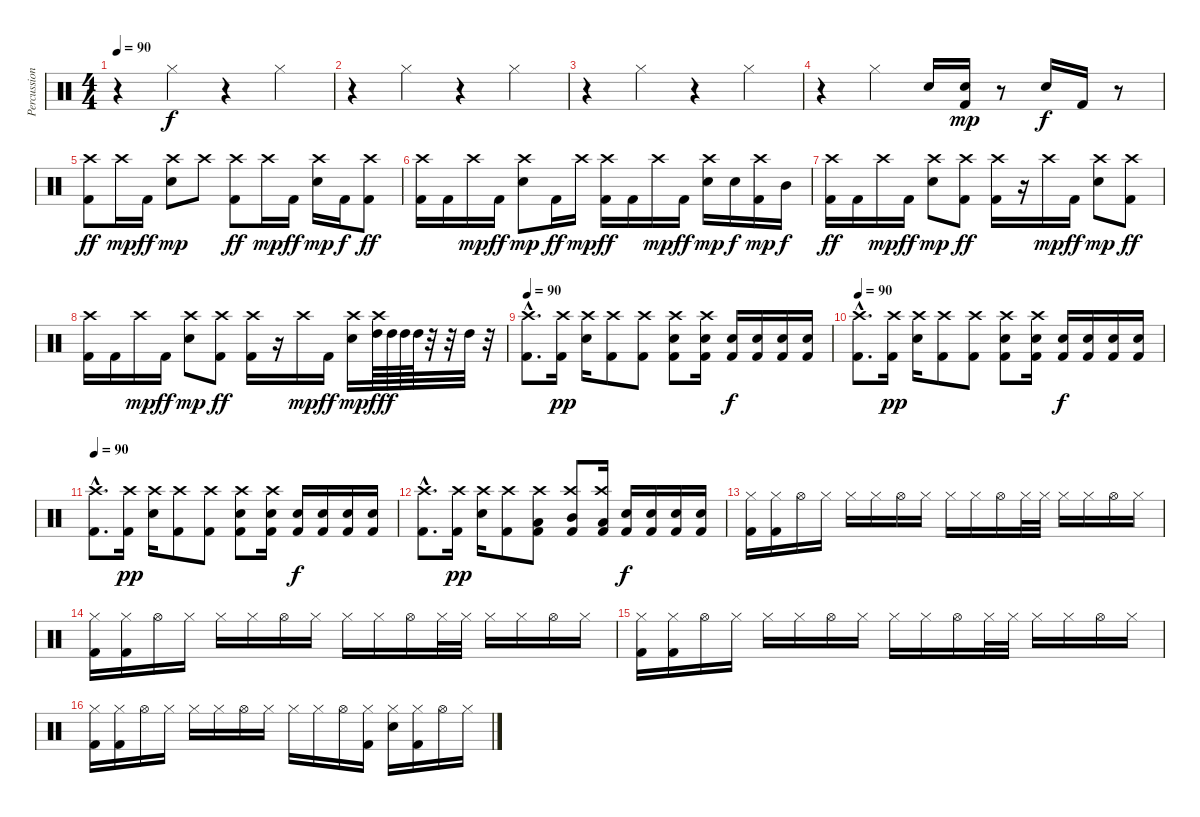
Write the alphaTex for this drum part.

\track ("Percussion" "Percussion") {instrument percussion}
\staff {score}
\articulation defaults
\ts (4 4)
\tempo 90
\clef neutral
\ks c
r.4{dy f} "Hi-Hat (closed)".4 r.4 "Hi-Hat (closed)".4 |
r.4 "Hi-Hat (closed)".4 r.4 "Hi-Hat (closed)".4 |
r.4 "Hi-Hat (closed)".4 r.4 "Hi-Hat (closed)".4 |
r.4 "Hi-Hat (closed)".4 "Electric Snare (hit)".16 ("Snare (hit) 2" "Kick (hit) 2").16{dy mp} r.8 "Electric Snare (hit)".16{dy f} "Kick (hit) 2".16 r.8 |
("Crash high (hit)" "Kick (hit) 2").8{dy ff} "Crash high (hit)".16{dy mp} "Kick (hit) 2".16{dy ff} ("Crash high (hit)" "Electric Snare (hit)").8{dy mp} "Crash high (hit)".8 ("Crash high (hit)" "Kick (hit) 2").8{dy ff} "Crash high (hit)".16{dy mp} "Kick (hit) 2".16{dy ff} ("Crash high (hit)" "Electric Snare (hit)").16{dy mp} "Kick (hit) 2".16{dy f} ("Crash high (hit)" "Kick (hit) 2").8{dy ff} |
("Crash high (hit)" "Kick (hit) 2").16 "Kick (hit) 2".16 "Crash high (hit)".16{dy mp} "Kick (hit) 2".16{dy ff} ("Crash high (hit)" "Electric Snare (hit)").8{dy mp} "Kick (hit) 2".16{dy ff} "Crash high (hit)".16{dy mp} ("Crash high (hit)" "Kick (hit) 2").16{dy ff} "Kick (hit) 2".16 "Crash high (hit)".16{dy mp} "Kick (hit) 2".16{dy ff} ("Crash high (hit)" "Electric Snare (hit)").16{dy mp} "Snare (hit) 2".16{dy f} ("Crash high (hit)" "Kick (hit) 2").16{dy mp} "Mid Tom (hit)".16{dy f} |
("Crash high (hit)" "Kick (hit) 2").16{dy ff} "Kick (hit) 2".16 "Crash high (hit)".16{dy mp} "Kick (hit) 2".16{dy ff} ("Crash high (hit)" "Electric Snare (hit)").8{dy mp} ("Crash high (hit)" "Kick (hit) 2").8{dy ff} ("Crash high (hit)" "Kick (hit) 2").16 r.16 "Crash high (hit)".16{dy mp} "Kick (hit) 2".16{dy ff} ("Crash high (hit)" "Electric Snare (hit)").8{dy mp} ("Crash high (hit)" "Kick (hit) 2").8{dy ff} |
("Crash high (hit)" "Kick (hit) 2").16 "Kick (hit) 2".16 "Crash high (hit)".16{dy mp} "Kick (hit) 2".16{dy ff} ("Crash high (hit)" "Electric Snare (hit)").8{dy mp} ("Crash high (hit)" "Kick (hit) 2").8{dy ff} ("Crash high (hit)" "Kick (hit) 2").16 r.16 "Crash high (hit)".16{dy mp} "Kick (hit) 2".16{dy ff} ("Crash high (hit)" "Electric Snare (hit)").16{dy mp} ("Crash high (hit)" "High Tom (hit)").64{dy ff} "High Tom (hit)".64{dy f} "High Tom (hit)".64 "High Tom (hit)".64 r.32 r.32 "High Tom (hit)".32 r.32 |
\tempo 90
("Crash high (hit)"{hac} "Kick (hit) 2"{hac}).8{d} ("Crash high (hit)" "Kick (hit) 2").16{dy pp} ("Crash high (hit)" "Electric Snare (hit)").16 ("Crash high (hit)" "Kick (hit) 2").8 ("Crash high (hit)" "Kick (hit) 2").8 ("Crash high (hit)" "Snare (hit) 2" "Kick (hit) 2").8 ("Crash high (hit)" "Electric Snare (hit)" "Kick (hit) 2").16 ("Electric Snare (hit)" "Kick (hit) 2").16{dy f} ("Electric Snare (hit)" "Kick (hit) 2").16 ("Electric Snare (hit)" "Kick (hit) 2").16 ("Electric Snare (hit)" "Kick (hit) 2").16 |
\tempo 90
("Crash high (hit)"{hac} "Kick (hit) 2"{hac}).8{d} ("Crash high (hit)" "Kick (hit) 2").16{dy pp} ("Crash high (hit)" "Electric Snare (hit)").16 ("Crash high (hit)" "Kick (hit) 2").8 ("Crash high (hit)" "Kick (hit) 2").8 ("Crash high (hit)" "Snare (hit) 2" "Kick (hit) 2").8 ("Crash high (hit)" "Electric Snare (hit)" "Kick (hit) 2").16 ("Electric Snare (hit)" "Kick (hit) 2").16{dy f} ("Electric Snare (hit)" "Kick (hit) 2").16 ("Electric Snare (hit)" "Kick (hit) 2").16 ("Electric Snare (hit)" "Kick (hit) 2").16 |
\tempo 90
("Crash high (hit)"{hac} "Kick (hit) 2"{hac}).8{d} ("Crash high (hit)" "Kick (hit) 2").16{dy pp} ("Crash high (hit)" "Electric Snare (hit)").16 ("Crash high (hit)" "Kick (hit) 2").8 ("Crash high (hit)" "Kick (hit) 2").8 ("Crash high (hit)" "Snare (hit) 2" "Kick (hit) 2").8 ("Crash high (hit)" "Electric Snare (hit)" "Kick (hit) 2").16 ("Electric Snare (hit)" "Kick (hit) 2").16{dy f} ("Electric Snare (hit)" "Kick (hit) 2").16 ("Electric Snare (hit)" "Kick (hit) 2").16 ("Electric Snare (hit)" "Kick (hit) 2").16 |
("Crash high (hit)"{hac} "Kick (hit) 2"{hac}).8{d} ("Crash high (hit)" "Kick (hit) 2").16{dy pp} ("Crash high (hit)" "Electric Snare (hit)").16 ("Crash high (hit)" "Kick (hit) 2").8 ("Crash high (hit)" "Low Tom (hit)" "Kick (hit) 2").8 ("Crash high (hit)" "Mid Tom (hit)" "Kick (hit) 2").8 ("Crash high (hit)" "Low Tom (hit)" "Kick (hit) 2").16 ("Electric Snare (hit)" "Kick (hit) 2").16{dy f} ("Electric Snare (hit)" "Kick (hit) 2").16 ("Electric Snare (hit)" "Kick (hit) 2").16 ("Electric Snare (hit)" "Kick (hit) 2").16 |
("Hi-Hat (closed)" "Kick (hit) 2").16 ("Hi-Hat (closed)" "Kick (hit) 2").16 "Hi-Hat (open)".16 "Hi-Hat (closed)".16 "Hi-Hat (closed)".16 "Hi-Hat (closed)".16 "Hi-Hat (open)".16 "Hi-Hat (closed)".16 "Hi-Hat (closed)".16 "Hi-Hat (closed)".16 "Hi-Hat (open)".16 "Hi-Hat (closed)".32 "Hi-Hat (closed)".32 "Hi-Hat (closed)".16 "Hi-Hat (closed)".16 "Hi-Hat (open)".16 "Hi-Hat (closed)".16 |
("Hi-Hat (closed)" "Kick (hit) 2").16 ("Hi-Hat (closed)" "Kick (hit) 2").16 "Hi-Hat (open)".16 "Hi-Hat (closed)".16 "Hi-Hat (closed)".16 "Hi-Hat (closed)".16 "Hi-Hat (open)".16 "Hi-Hat (closed)".16 "Hi-Hat (closed)".16 "Hi-Hat (closed)".16 "Hi-Hat (open)".16 "Hi-Hat (closed)".32 "Hi-Hat (closed)".32 "Hi-Hat (closed)".16 "Hi-Hat (closed)".16 "Hi-Hat (open)".16 "Hi-Hat (closed)".16 |
("Hi-Hat (closed)" "Kick (hit) 2").16 ("Hi-Hat (closed)" "Kick (hit) 2").16 "Hi-Hat (open)".16 "Hi-Hat (closed)".16 "Hi-Hat (closed)".16 "Hi-Hat (closed)".16 "Hi-Hat (open)".16 "Hi-Hat (closed)".16 "Hi-Hat (closed)".16 "Hi-Hat (closed)".16 "Hi-Hat (open)".16 "Hi-Hat (closed)".32 "Hi-Hat (closed)".32 "Hi-Hat (closed)".16 "Hi-Hat (closed)".16 "Hi-Hat (open)".16 "Hi-Hat (closed)".16 |
("Hi-Hat (closed)" "Kick (hit) 2").16 ("Hi-Hat (closed)" "Kick (hit) 2").16 "Hi-Hat (open)".16 "Hi-Hat (closed)".16 "Hi-Hat (closed)".16 "Hi-Hat (closed)".16 "Hi-Hat (open)".16 "Hi-Hat (closed)".16 "Hi-Hat (closed)".16 "Hi-Hat (closed)".16 "Hi-Hat (open)".16 ("Hi-Hat (closed)" "Kick (hit) 2").16 ("Hi-Hat (closed)" "Electric Snare (hit)").16 ("Hi-Hat (closed)" "Kick (hit) 2").16 "Hi-Hat (open)".16 "Hi-Hat (closed)".16
